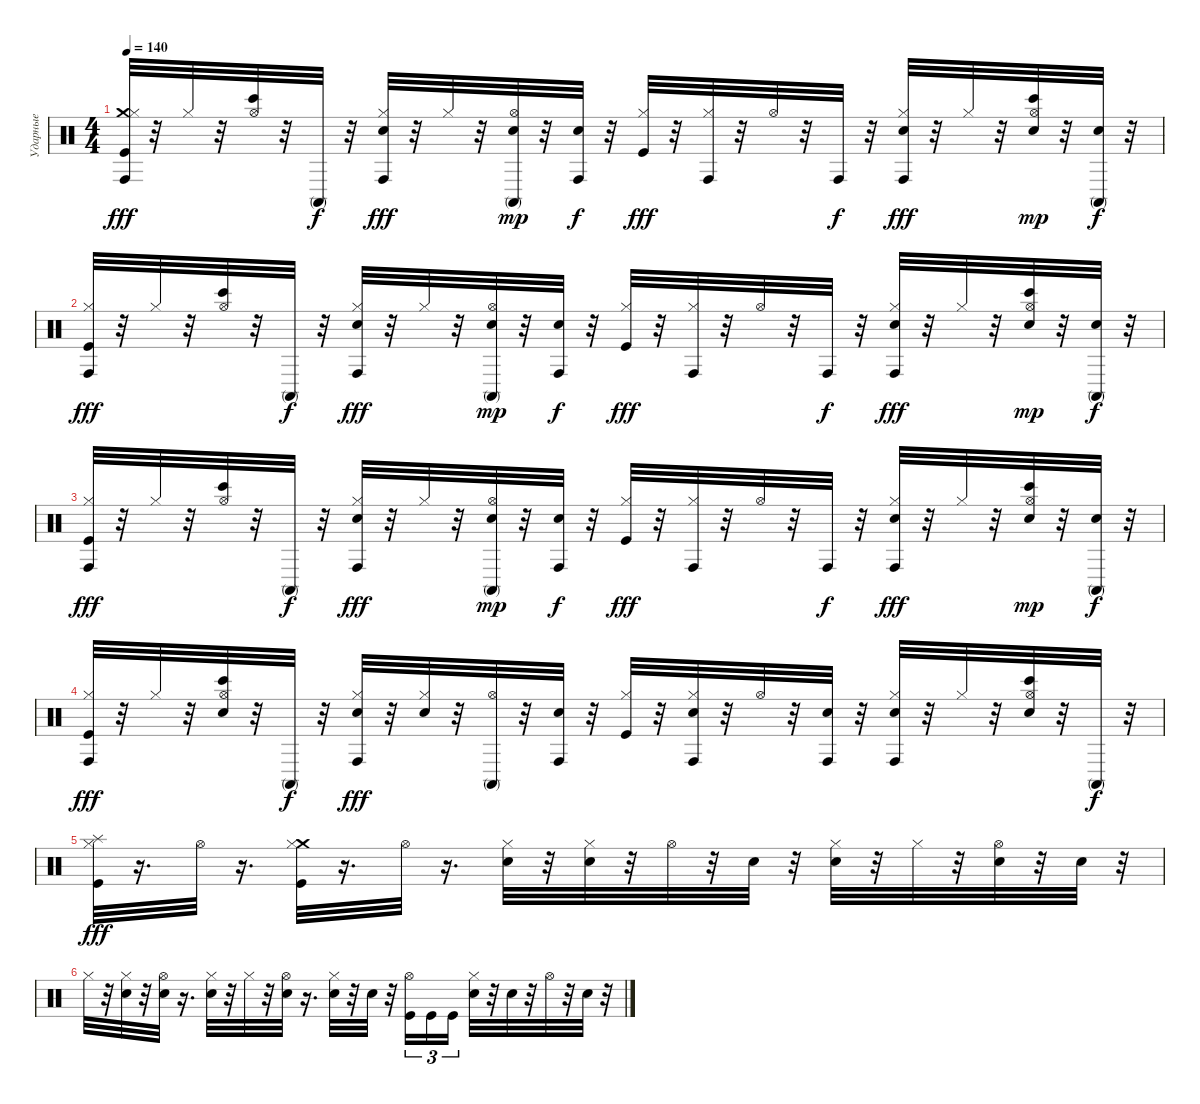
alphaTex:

\track ("Ударные" "Ударные") {instrument percussion}
\staff {score}
\articulation defaults
\ts (4 4)
\tempo 140
\clef neutral
\ks c
("Conga high (hit)" "Crash medium (hit)" "Hi-Hat (closed)" "Kick (hit)").32{dy fff} r.32 "Hi-Hat (closed)".32 r.32 ("Bongo High (hit)" "Hi-Hat (open)").32 r.32 "Conga high (mute)".32{dy f} r.32 ("Conga high (hit)" "Hi-Hat (closed)" "Electric Snare (hit)").32{dy fff} r.32 "Hi-Hat (closed)".32 r.32 ("Conga high (mute)" "Hi-Hat (open)" "Electric Snare (hit)").32{dy mp} r.32 ("Conga high (hit)" "Electric Snare (hit)").32{dy f} r.32 ("Hi-Hat (closed)" "Kick (hit)").32{dy fff} r.32 ("Conga high (hit)" "Hi-Hat (closed)").32 r.32 "Hi-Hat (open)".32 r.32 "Conga high (hit)".32{dy f} r.32 ("Conga high (hit)" "Hi-Hat (closed)" "Electric Snare (hit)").32{dy fff} r.32 "Hi-Hat (closed)".32 r.32 ("Bongo High (hit)" "Hi-Hat (open)" "Electric Snare (hit)").32{dy mp} r.32 ("Conga high (mute)" "Electric Snare (hit)").32{dy f} r.32 |
("Hi-Hat (closed)" "Kick (hit)" "Conga high (hit)").32{dy fff} r.32 "Hi-Hat (closed)".32 r.32 ("Hi-Hat (open)" "Bongo High (hit)").32 r.32 "Conga high (mute)".32{dy f} r.32 ("Hi-Hat (closed)" "Electric Snare (hit)" "Conga high (hit)").32{dy fff} r.32 "Hi-Hat (closed)".32 r.32 ("Hi-Hat (open)" "Electric Snare (hit)" "Conga high (mute)").32{dy mp} r.32 ("Electric Snare (hit)" "Conga high (hit)").32{dy f} r.32 ("Hi-Hat (closed)" "Kick (hit)").32{dy fff} r.32 ("Hi-Hat (closed)" "Conga high (hit)").32 r.32 "Hi-Hat (open)".32 r.32 "Conga high (hit)".32{dy f} r.32 ("Hi-Hat (closed)" "Electric Snare (hit)" "Conga high (hit)").32{dy fff} r.32 "Hi-Hat (closed)".32 r.32 ("Hi-Hat (open)" "Electric Snare (hit)" "Bongo High (hit)").32{dy mp} r.32 ("Electric Snare (hit)" "Conga high (mute)").32{dy f} r.32 |
("Kick (hit)" "Hi-Hat (closed)" "Conga high (hit)").32{dy fff} r.32 "Hi-Hat (closed)".32 r.32 ("Bongo High (hit)" "Hi-Hat (open)").32 r.32 "Conga high (mute)".32{dy f} r.32 ("Conga high (hit)" "Hi-Hat (closed)" "Electric Snare (hit)").32{dy fff} r.32 "Hi-Hat (closed)".32 r.32 ("Conga high (mute)" "Hi-Hat (open)" "Electric Snare (hit)").32{dy mp} r.32 ("Conga high (hit)" "Electric Snare (hit)").32{dy f} r.32 ("Hi-Hat (closed)" "Kick (hit)").32{dy fff} r.32 ("Conga high (hit)" "Hi-Hat (closed)").32 r.32 "Hi-Hat (open)".32 r.32 "Conga high (hit)".32{dy f} r.32 ("Conga high (hit)" "Hi-Hat (closed)" "Electric Snare (hit)").32{dy fff} r.32 "Hi-Hat (closed)".32 r.32 ("Bongo High (hit)" "Hi-Hat (open)" "Electric Snare (hit)").32{dy mp} r.32 ("Conga high (mute)" "Electric Snare (hit)").32{dy f} r.32 |
("Hi-Hat (closed)" "Kick (hit)" "Conga high (hit)").32{dy fff} r.32 "Hi-Hat (closed)".32 r.32 ("Hi-Hat (open)" "Bongo High (hit)" "Electric Snare (hit)").32 r.32 "Conga high (mute)".32{dy f} r.32 ("Hi-Hat (closed)" "Conga high (hit)" "Electric Snare (hit)").32{dy fff} r.32 ("Hi-Hat (closed)" "Electric Snare (hit)").32 r.32 ("Hi-Hat (open)" "Conga high (mute)").32 r.32 ("Conga high (hit)" "Electric Snare (hit)").32 r.32 ("Hi-Hat (closed)" "Kick (hit)").32 r.32 ("Hi-Hat (closed)" "Conga high (hit)" "Electric Snare (hit)").32 r.32 "Hi-Hat (open)".32 r.32 ("Conga high (hit)" "Electric Snare (hit)").32 r.32 ("Hi-Hat (closed)" "Conga high (hit)" "Electric Snare (hit)").32 r.32 "Hi-Hat (closed)".32 r.32 ("Hi-Hat (open)" "Bongo High (hit)" "Electric Snare (hit)").32 r.32 "Conga high (mute)".32{dy f} r.32 |
("Kick (hit)" "Hi-Hat (closed)" "Splash (hit)").32{dy fff} r.16{d} "Hi-Hat (open)".32 r.16{d} ("Kick (hit)" "Crash medium (hit)" "Hi-Hat (closed)").32 r.16{d} "Hi-Hat (open)".32 r.16{d} ("Hi-Hat (closed)" "Electric Snare (hit)").32 r.32 ("Hi-Hat (closed)" "Electric Snare (hit)").32 r.32 "Hi-Hat (open)".32 r.32 "Electric Snare (hit)".32 r.32 ("Hi-Hat (closed)" "Electric Snare (hit)").32 r.32 "Hi-Hat (closed)".32 r.32 ("Hi-Hat (open)" "Electric Snare (hit)").32 r.32 "Electric Snare (hit)".32 r.32 |
"Hi-Hat (closed)".32 r.32 ("Electric Snare (hit)" "Hi-Hat (closed)").32 r.32 ("Electric Snare (hit)" "Hi-Hat (open)").32 r.16{d} ("Electric Snare (hit)" "Hi-Hat (closed)").32 r.32 "Hi-Hat (closed)".32 r.32 ("Electric Snare (hit)" "Hi-Hat (open)").32 r.16{d} ("Hi-Hat (closed)" "Electric Snare (hit)").32 r.32 "Electric Snare (hit)".32 r.32 ("Hi-Hat (open)" "Kick (hit)").16{tu (3 2)} "Kick (hit)".16{tu (3 2)} "Kick (hit)".16{tu (3 2)} ("Hi-Hat (closed)" "Electric Snare (hit)").32 r.32 "Electric Snare (hit)".32 r.32 "Hi-Hat (open)".32 r.32 "Electric Snare (hit)".32 r.32
